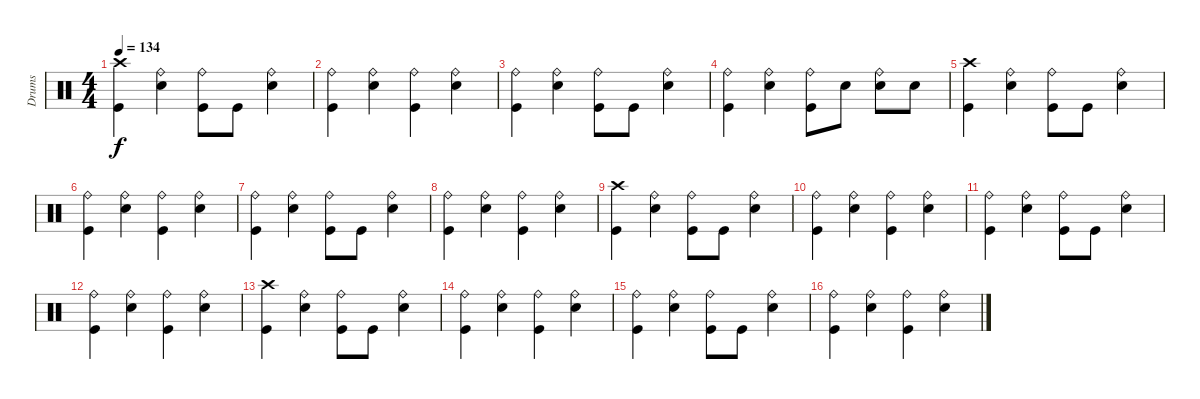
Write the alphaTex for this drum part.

\track ("Drums" "Drums") {instrument percussion}
\staff {score}
\articulation defaults
\ts (4 4)
\tempo 134
\clef neutral
\ks c
("Crash high (hit)" "Kick (hit)").4{dy f} ("Ride (bell)" "Snare (hit) 2").4 ("Ride (bell)" "Kick (hit)").8 "Kick (hit)".8 ("Ride (bell)" "Snare (hit) 2").4 |
("Ride (bell)" "Kick (hit)").4 ("Ride (bell)" "Snare (hit) 2").4 ("Ride (bell)" "Kick (hit)").4 ("Ride (bell)" "Snare (hit) 2").4 |
("Ride (bell)" "Kick (hit)").4 ("Ride (bell)" "Snare (hit) 2").4 ("Ride (bell)" "Kick (hit)").8 "Kick (hit)".8 ("Ride (bell)" "Snare (hit) 2").4 |
("Ride (bell)" "Kick (hit)").4 ("Ride (bell)" "Snare (hit) 2").4 ("Ride (bell)" "Kick (hit)").8 "Snare (hit) 2".8 ("Ride (bell)" "Snare (hit) 2").8 "Snare (hit) 2".8 |
("Crash high (hit)" "Kick (hit)").4 ("Ride (bell)" "Snare (hit) 2").4 ("Ride (bell)" "Kick (hit)").8 "Kick (hit)".8 ("Ride (bell)" "Snare (hit) 2").4 |
("Ride (bell)" "Kick (hit)").4 ("Ride (bell)" "Snare (hit) 2").4 ("Ride (bell)" "Kick (hit)").4 ("Ride (bell)" "Snare (hit) 2").4 |
("Ride (bell)" "Kick (hit)").4 ("Ride (bell)" "Snare (hit) 2").4 ("Ride (bell)" "Kick (hit)").8 "Kick (hit)".8 ("Ride (bell)" "Snare (hit) 2").4 |
("Ride (bell)" "Kick (hit)").4 ("Ride (bell)" "Snare (hit) 2").4 ("Ride (bell)" "Kick (hit)").4 ("Ride (bell)" "Snare (hit) 2").4 |
("Crash high (hit)" "Kick (hit)").4 ("Ride (bell)" "Snare (hit) 2").4 ("Ride (bell)" "Kick (hit)").8 "Kick (hit)".8 ("Ride (bell)" "Snare (hit) 2").4 |
("Ride (bell)" "Kick (hit)").4 ("Ride (bell)" "Snare (hit) 2").4 ("Ride (bell)" "Kick (hit)").4 ("Ride (bell)" "Snare (hit) 2").4 |
("Ride (bell)" "Kick (hit)").4 ("Ride (bell)" "Snare (hit) 2").4 ("Ride (bell)" "Kick (hit)").8 "Kick (hit)".8 ("Ride (bell)" "Snare (hit) 2").4 |
("Ride (bell)" "Kick (hit)").4 ("Ride (bell)" "Snare (hit) 2").4 ("Ride (bell)" "Kick (hit)").4 ("Ride (bell)" "Snare (hit) 2").4 |
("Crash high (hit)" "Kick (hit)").4 ("Ride (bell)" "Snare (hit) 2").4 ("Ride (bell)" "Kick (hit)").8 "Kick (hit)".8 ("Ride (bell)" "Snare (hit) 2").4 |
("Ride (bell)" "Kick (hit)").4 ("Ride (bell)" "Snare (hit) 2").4 ("Ride (bell)" "Kick (hit)").4 ("Ride (bell)" "Snare (hit) 2").4 |
("Ride (bell)" "Kick (hit)").4 ("Ride (bell)" "Snare (hit) 2").4 ("Ride (bell)" "Kick (hit)").8 "Kick (hit)".8 ("Ride (bell)" "Snare (hit) 2").4 |
("Ride (bell)" "Kick (hit)").4 ("Ride (bell)" "Snare (hit) 2").4 ("Ride (bell)" "Kick (hit)").4 ("Ride (bell)" "Snare (hit) 2").4
